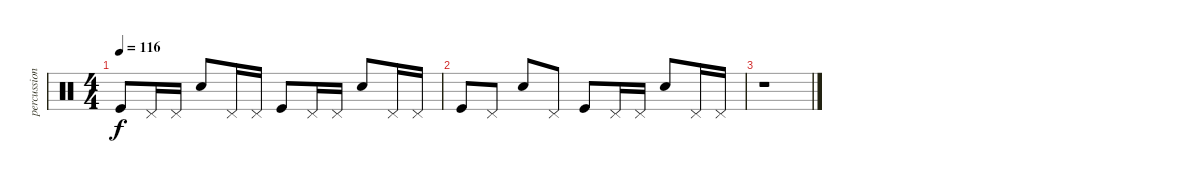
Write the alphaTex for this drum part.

\track ("percussion" "percussion") {instrument percussion}
\staff {score}
\articulation defaults
\ts (4 4)
\tempo 116
\clef neutral
\ks c "Kick (hit)".8{dy f} "Pedal Hi-Hat (hit)".16 "Pedal Hi-Hat (hit)".16 "Electric Snare (hit)".8 "Pedal Hi-Hat (hit)".16 "Pedal Hi-Hat (hit)".16 "Kick (hit)".8 "Pedal Hi-Hat (hit)".16 "Pedal Hi-Hat (hit)".16 "Electric Snare (hit)".8 "Pedal Hi-Hat (hit)".16 "Pedal Hi-Hat (hit)".16
|
"Kick (hit)".8 "Pedal Hi-Hat (hit)".8 "Electric Snare (hit)".8 "Pedal Hi-Hat (hit)".8 "Kick (hit)".8 "Pedal Hi-Hat (hit)".16 "Pedal Hi-Hat (hit)".16 "Electric Snare (hit)".8 "Pedal Hi-Hat (hit)".16 "Pedal Hi-Hat (hit)".16 |
r.1
